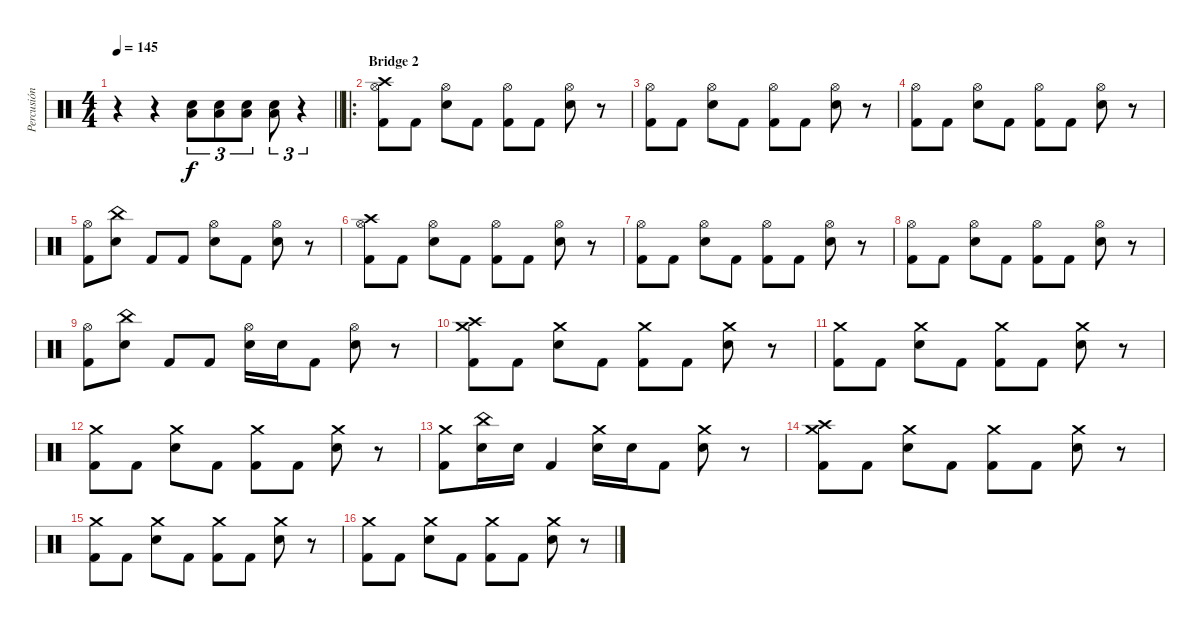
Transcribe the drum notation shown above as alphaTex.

\track ("Percusión" "Percusión") {instrument percussion}
\staff {score}
\articulation defaults
\ts (4 4)
\tempo 145
\clef neutral
\barLineRight lightlight
\ks c
r.4{dy f} r.4 ("Electric Snare (hit)" "Low Tom (hit)").8{tu (3 2)} ("Electric Snare (hit)" "Low Tom (hit)").8{tu (3 2)} ("Electric Snare (hit)" "Low Tom (hit)").8{tu (3 2)} ("Electric Snare (hit)" "Low Tom (hit)").8{tu (3 2)} r.4{tu (3 2)} |
\ro
\section ("" "Bridge 2")
("Kick (hit) 2" "Hi-Hat (open)" "Crash high (hit)").8 "Kick (hit) 2".8 ("Hi-Hat (open)" "Electric Snare (hit)").8 "Kick (hit) 2".8 ("Kick (hit) 2" "Hi-Hat (open)").8 "Kick (hit) 2".8 ("Hi-Hat (open)" "Electric Snare (hit)").8 r.8 |
("Kick (hit) 2" "Hi-Hat (open)").8 "Kick (hit) 2".8 ("Hi-Hat (open)" "Electric Snare (hit)").8 "Kick (hit) 2".8 ("Kick (hit) 2" "Hi-Hat (open)").8 "Kick (hit) 2".8 ("Hi-Hat (open)" "Electric Snare (hit)").8 r.8 |
("Kick (hit) 2" "Hi-Hat (open)").8 "Kick (hit) 2".8 ("Hi-Hat (open)" "Electric Snare (hit)").8 "Kick (hit) 2".8 ("Kick (hit) 2" "Hi-Hat (open)").8 "Kick (hit) 2".8 ("Hi-Hat (open)" "Electric Snare (hit)").8 r.8 |
("Kick (hit) 2" "Hi-Hat (open)").8 ("Electric Snare (hit)" "China (hit)").8 "Kick (hit) 2".8 "Kick (hit) 2".8 ("Hi-Hat (open)" "Electric Snare (hit)").8 "Kick (hit) 2".8 ("Hi-Hat (open)" "Electric Snare (hit)").8 r.8 |
("Kick (hit) 2" "Hi-Hat (open)" "Crash high (hit)").8 "Kick (hit) 2".8 ("Hi-Hat (open)" "Electric Snare (hit)").8 "Kick (hit) 2".8 ("Kick (hit) 2" "Hi-Hat (open)").8 "Kick (hit) 2".8 ("Hi-Hat (open)" "Electric Snare (hit)").8 r.8 |
("Kick (hit) 2" "Hi-Hat (open)").8 "Kick (hit) 2".8 ("Hi-Hat (open)" "Electric Snare (hit)").8 "Kick (hit) 2".8 ("Kick (hit) 2" "Hi-Hat (open)").8 "Kick (hit) 2".8 ("Hi-Hat (open)" "Electric Snare (hit)").8 r.8 |
("Kick (hit) 2" "Hi-Hat (open)").8 "Kick (hit) 2".8 ("Hi-Hat (open)" "Electric Snare (hit)").8 "Kick (hit) 2".8 ("Kick (hit) 2" "Hi-Hat (open)").8 "Kick (hit) 2".8 ("Hi-Hat (open)" "Electric Snare (hit)").8 r.8 |
("Kick (hit) 2" "Hi-Hat (open)").8 ("Electric Snare (hit)" "China (hit)").8 "Kick (hit) 2".8 "Kick (hit) 2".8 ("Hi-Hat (open)" "Electric Snare (hit)").16 "Electric Snare (hit)".16 "Kick (hit) 2".8 ("Hi-Hat (open)" "Electric Snare (hit)").8 r.8 |
("Kick (hit) 2" "Crash medium (hit)" "Crash high (hit)").8 "Kick (hit) 2".8 ("Crash medium (hit)" "Electric Snare (hit)").8 "Kick (hit) 2".8 ("Kick (hit) 2" "Crash medium (hit)").8 "Kick (hit) 2".8 ("Crash medium (hit)" "Electric Snare (hit)").8 r.8 |
("Kick (hit) 2" "Crash medium (hit)").8 "Kick (hit) 2".8 ("Crash medium (hit)" "Electric Snare (hit)").8 "Kick (hit) 2".8 ("Kick (hit) 2" "Crash medium (hit)").8 "Kick (hit) 2".8 ("Crash medium (hit)" "Electric Snare (hit)").8 r.8 |
("Kick (hit) 2" "Crash medium (hit)").8 "Kick (hit) 2".8 ("Crash medium (hit)" "Electric Snare (hit)").8 "Kick (hit) 2".8 ("Kick (hit) 2" "Crash medium (hit)").8 "Kick (hit) 2".8 ("Crash medium (hit)" "Electric Snare (hit)").8 r.8 |
("Kick (hit) 2" "Crash medium (hit)").8 ("Electric Snare (hit)" "China (hit)").16 "Electric Snare (hit)".16 "Kick (hit) 2".4 ("Crash medium (hit)" "Electric Snare (hit)").16 "Electric Snare (hit)".16 "Kick (hit) 2".8 ("Crash medium (hit)" "Electric Snare (hit)").8 r.8 |
("Kick (hit) 2" "Crash medium (hit)" "Crash high (hit)").8 "Kick (hit) 2".8 ("Crash medium (hit)" "Electric Snare (hit)").8 "Kick (hit) 2".8 ("Kick (hit) 2" "Crash medium (hit)").8 "Kick (hit) 2".8 ("Crash medium (hit)" "Electric Snare (hit)").8 r.8 |
("Kick (hit) 2" "Crash medium (hit)").8 "Kick (hit) 2".8 ("Crash medium (hit)" "Electric Snare (hit)").8 "Kick (hit) 2".8 ("Kick (hit) 2" "Crash medium (hit)").8 "Kick (hit) 2".8 ("Crash medium (hit)" "Electric Snare (hit)").8 r.8 |
("Kick (hit) 2" "Crash medium (hit)").8 "Kick (hit) 2".8 ("Crash medium (hit)" "Electric Snare (hit)").8 "Kick (hit) 2".8 ("Kick (hit) 2" "Crash medium (hit)").8 "Kick (hit) 2".8 ("Crash medium (hit)" "Electric Snare (hit)").8 r.8
